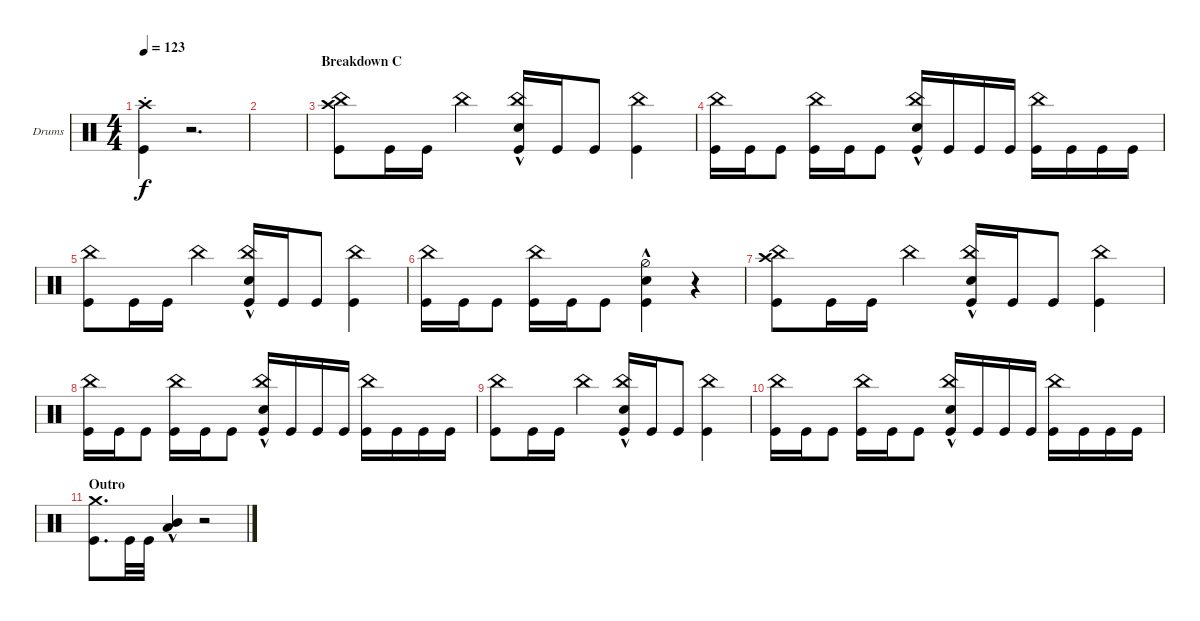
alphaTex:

\bracketExtendMode groupsimilarinstruments
\firstSystemTrackNameOrientation horizontal
\otherSystemsTrackNameOrientation horizontal
\track ("Drumkit" "Drums") {instrument percussion}
\staff {score}
\articulation defaults
\ts (4 4)
\tempo 123
\clef neutral
\ks aminor
("Crash high (hit)"{st} "Kick (hit)").4{dy f} r.2{d} |
|
\section ("" "Breakdown C")
("Kick (hit)" "Crash high (hit)" "China (hit)").8 "Kick (hit)".16 "Kick (hit)".16 "China (hit)".4 ("Kick (hit)" "China (hit)" "Snare (hit) 2"{hac}).16 "Kick (hit)".16 "Kick (hit)".8 ("Kick (hit)" "China (hit)").4 |
("Kick (hit)" "China (hit)").16 "Kick (hit)".16 "Kick (hit)".8 ("Kick (hit)" "China (hit)").16 "Kick (hit)".16 "Kick (hit)".8 ("Kick (hit)" "China (hit)" "Snare (hit) 2"{hac}).16 "Kick (hit)".16 "Kick (hit)".16 "Kick (hit)".16 ("Kick (hit)" "China (hit)").16 "Kick (hit)".16 "Kick (hit)".16 "Kick (hit)".16 |
("Kick (hit)" "China (hit)").8 "Kick (hit)".16 "Kick (hit)".16 "China (hit)".4 ("Kick (hit)" "China (hit)" "Snare (hit) 2"{hac}).16 "Kick (hit)".16 "Kick (hit)".8 ("Kick (hit)" "China (hit)").4 |
("Kick (hit)" "China (hit)").16 "Kick (hit)".16 "Kick (hit)".8 ("Kick (hit)" "China (hit)").16 "Kick (hit)".16 "Kick (hit)".8 ("Kick (hit)" "Snare (hit) 2"{hac} "Hi-Hat (half)").4 r.4 |
("Kick (hit)" "Crash high (hit)" "China (hit)").8 "Kick (hit)".16 "Kick (hit)".16 "China (hit)".4 ("Kick (hit)" "China (hit)" "Snare (hit) 2"{hac}).16 "Kick (hit)".16 "Kick (hit)".8 ("Kick (hit)" "China (hit)").4 |
("Kick (hit)" "China (hit)").16 "Kick (hit)".16 "Kick (hit)".8 ("Kick (hit)" "China (hit)").16 "Kick (hit)".16 "Kick (hit)".8 ("Kick (hit)" "China (hit)" "Snare (hit) 2"{hac}).16 "Kick (hit)".16 "Kick (hit)".16 "Kick (hit)".16 ("Kick (hit)" "China (hit)").16 "Kick (hit)".16 "Kick (hit)".16 "Kick (hit)".16 |
("Kick (hit)" "China (hit)").8 "Kick (hit)".16 "Kick (hit)".16 "China (hit)".4 ("Kick (hit)" "China (hit)" "Snare (hit) 2"{hac}).16 "Kick (hit)".16 "Kick (hit)".8 ("Kick (hit)" "China (hit)").4 |
("Kick (hit)" "China (hit)").16 "Kick (hit)".16 "Kick (hit)".8 ("Kick (hit)" "China (hit)").16 "Kick (hit)".16 "Kick (hit)".8 ("Kick (hit)" "China (hit)" "Snare (hit) 2"{hac}).16 "Kick (hit)".16 "Kick (hit)".16 "Kick (hit)".16 ("Kick (hit)" "China (hit)").16 "Kick (hit)".16 "Kick (hit)".16 "Kick (hit)".16 |
\section ("" "Outro")
("Kick (hit)" "Crash medium (hit)").8{d} "Kick (hit)".32 "Kick (hit)".32 ("Low Tom (hit)"{hac} "Mid Tom (hit)"{hac}).4 r.2
